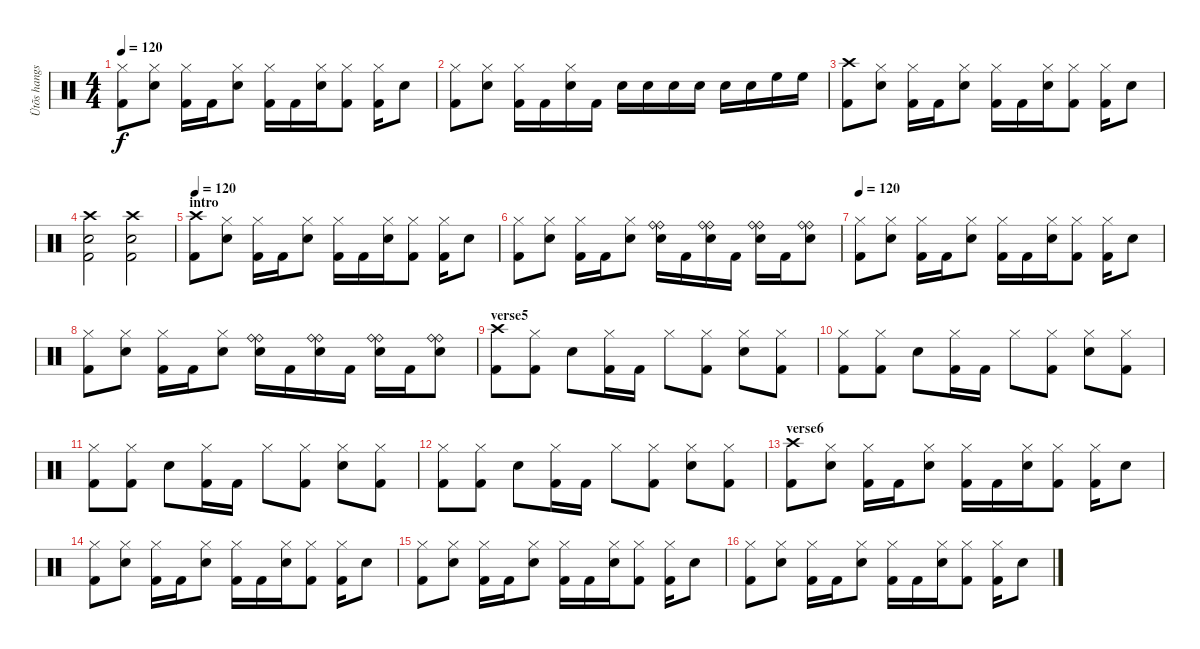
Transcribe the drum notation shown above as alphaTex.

\track ("Ütõs hangszer" "Ütõs hangs") {instrument percussion}
\staff {score}
\articulation defaults
\ts (4 4)
\tempo 120
\clef neutral
\ks c
("Hi-Hat (closed)" "Kick (hit) 2").8{dy f} ("Hi-Hat (closed)" "Snare (hit) 2").8 ("Hi-Hat (closed)" "Kick (hit) 2").16 "Kick (hit) 2".16 ("Hi-Hat (closed)" "Snare (hit) 2").8 ("Hi-Hat (closed)" "Kick (hit) 2").16 "Kick (hit) 2".16 ("Hi-Hat (closed)" "Snare (hit) 2").16 ("Hi-Hat (closed)" "Kick (hit) 2").8 ("Hi-Hat (closed)" "Kick (hit) 2").16 "Snare (hit) 2".8 |
("Hi-Hat (closed)" "Kick (hit) 2").8 ("Hi-Hat (closed)" "Snare (hit) 2").8 ("Hi-Hat (closed)" "Kick (hit) 2").16 "Kick (hit) 2".16 ("Hi-Hat (closed)" "Snare (hit) 2").16 "Kick (hit) 2".16 "Snare (hit) 2".16 "Snare (hit) 2".16 "Snare (hit) 2".16 "Snare (hit) 2".16 "Snare (hit) 2".16 "Snare (hit) 2".16 "High Floor Tom (hit)".16 "High Floor Tom (hit)".16 |
("Crash high (hit)" "Kick (hit) 2").8 ("Hi-Hat (closed)" "Snare (hit) 2").8 ("Hi-Hat (closed)" "Kick (hit) 2").16 "Kick (hit) 2".16 ("Hi-Hat (closed)" "Snare (hit) 2").8 ("Hi-Hat (closed)" "Kick (hit) 2").16 "Kick (hit) 2".16 ("Hi-Hat (closed)" "Snare (hit) 2").16 ("Hi-Hat (closed)" "Kick (hit) 2").8 ("Hi-Hat (closed)" "Kick (hit) 2").16 "Snare (hit) 2".8 |
("Crash high (hit)" "Snare (hit) 2" "Kick (hit) 2").2 ("Crash high (hit)" "Snare (hit) 2" "Kick (hit) 2").2 |
\section ("" "intro")
\tempo 120
("Crash high (hit)" "Kick (hit) 2").8 ("Hi-Hat (closed)" "Snare (hit) 2").8 ("Hi-Hat (closed)" "Kick (hit) 2").16 "Kick (hit) 2".16 ("Hi-Hat (closed)" "Snare (hit) 2").8 ("Hi-Hat (closed)" "Kick (hit) 2").16 "Kick (hit) 2".16 ("Hi-Hat (closed)" "Snare (hit) 2").16 ("Hi-Hat (closed)" "Kick (hit) 2").8 ("Hi-Hat (closed)" "Kick (hit) 2").16 "Snare (hit) 2".8 |
("Hi-Hat (closed)" "Kick (hit) 2").8 ("Hi-Hat (closed)" "Snare (hit) 2").8 ("Hi-Hat (closed)" "Kick (hit) 2").16 "Kick (hit) 2".16 ("Hi-Hat (closed)" "Snare (hit) 2").8 ("Ride (bell)" "Ride (bell)" "Snare (hit) 2").16 "Kick (hit) 2".16 ("Ride (bell)" "Ride (bell)" "Snare (hit) 2").16 "Kick (hit) 2".16 ("Ride (bell)" "Ride (bell)" "Snare (hit) 2").16 "Kick (hit) 2".16 ("Ride (bell)" "Ride (bell)" "Snare (hit) 2").8 |
\tempo 120
("Hi-Hat (closed)" "Kick (hit) 2").8 ("Hi-Hat (closed)" "Snare (hit) 2").8 ("Hi-Hat (closed)" "Kick (hit) 2").16 "Kick (hit) 2".16 ("Hi-Hat (closed)" "Snare (hit) 2").8 ("Hi-Hat (closed)" "Kick (hit) 2").16 "Kick (hit) 2".16 ("Hi-Hat (closed)" "Snare (hit) 2").16 ("Hi-Hat (closed)" "Kick (hit) 2").8 ("Hi-Hat (closed)" "Kick (hit) 2").16 "Snare (hit) 2".8 |
("Hi-Hat (closed)" "Kick (hit) 2").8 ("Hi-Hat (closed)" "Snare (hit) 2").8 ("Hi-Hat (closed)" "Kick (hit) 2").16 "Kick (hit) 2".16 ("Hi-Hat (closed)" "Snare (hit) 2").8 ("Ride (bell)" "Ride (bell)" "Snare (hit) 2").16 "Kick (hit) 2".16 ("Ride (bell)" "Ride (bell)" "Snare (hit) 2").16 "Kick (hit) 2".16 ("Ride (bell)" "Ride (bell)" "Snare (hit) 2").16 "Kick (hit) 2".16 ("Ride (bell)" "Ride (bell)" "Snare (hit) 2").8 |
\section ("" "verse5")
("Crash high (hit)" "Kick (hit) 2").8 ("Hi-Hat (closed)" "Kick (hit) 2").8 "Snare (hit) 2".8 ("Hi-Hat (closed)" "Kick (hit) 2").16 "Kick (hit) 2".16 "Hi-Hat (closed)".8 ("Hi-Hat (closed)" "Kick (hit) 2").8 ("Hi-Hat (closed)" "Snare (hit) 2").8 ("Hi-Hat (closed)" "Kick (hit) 2").8 |
("Hi-Hat (closed)" "Kick (hit) 2").8 ("Hi-Hat (closed)" "Kick (hit) 2").8 "Snare (hit) 2".8 ("Hi-Hat (closed)" "Kick (hit) 2").16 "Kick (hit) 2".16 "Hi-Hat (closed)".8 ("Hi-Hat (closed)" "Kick (hit) 2").8 ("Hi-Hat (closed)" "Snare (hit) 2").8 ("Hi-Hat (closed)" "Kick (hit) 2").8 |
("Hi-Hat (closed)" "Kick (hit) 2").8 ("Hi-Hat (closed)" "Kick (hit) 2").8 "Snare (hit) 2".8 ("Hi-Hat (closed)" "Kick (hit) 2").16 "Kick (hit) 2".16 "Hi-Hat (closed)".8 ("Hi-Hat (closed)" "Kick (hit) 2").8 ("Hi-Hat (closed)" "Snare (hit) 2").8 ("Hi-Hat (closed)" "Kick (hit) 2").8 |
("Hi-Hat (closed)" "Kick (hit) 2").8 ("Hi-Hat (closed)" "Kick (hit) 2").8 "Snare (hit) 2".8 ("Hi-Hat (closed)" "Kick (hit) 2").16 "Kick (hit) 2".16 "Hi-Hat (closed)".8 ("Hi-Hat (closed)" "Kick (hit) 2").8 ("Hi-Hat (closed)" "Snare (hit) 2").8 ("Hi-Hat (closed)" "Kick (hit) 2").8 |
\section ("" "verse6")
("Crash high (hit)" "Kick (hit) 2").8 ("Hi-Hat (closed)" "Snare (hit) 2").8 ("Hi-Hat (closed)" "Kick (hit) 2").16 "Kick (hit) 2".16 ("Hi-Hat (closed)" "Snare (hit) 2").8 ("Hi-Hat (closed)" "Kick (hit) 2").16 "Kick (hit) 2".16 ("Hi-Hat (closed)" "Snare (hit) 2").16 ("Hi-Hat (closed)" "Kick (hit) 2").8 ("Hi-Hat (closed)" "Kick (hit) 2").16 "Snare (hit) 2".8 |
("Hi-Hat (closed)" "Kick (hit) 2").8 ("Hi-Hat (closed)" "Snare (hit) 2").8 ("Hi-Hat (closed)" "Kick (hit) 2").16 "Kick (hit) 2".16 ("Hi-Hat (closed)" "Snare (hit) 2").8 ("Hi-Hat (closed)" "Kick (hit) 2").16 "Kick (hit) 2".16 ("Hi-Hat (closed)" "Snare (hit) 2").16 ("Hi-Hat (closed)" "Kick (hit) 2").8 ("Hi-Hat (closed)" "Kick (hit) 2").16 "Snare (hit) 2".8 |
("Hi-Hat (closed)" "Kick (hit) 2").8 ("Hi-Hat (closed)" "Snare (hit) 2").8 ("Hi-Hat (closed)" "Kick (hit) 2").16 "Kick (hit) 2".16 ("Hi-Hat (closed)" "Snare (hit) 2").8 ("Hi-Hat (closed)" "Kick (hit) 2").16 "Kick (hit) 2".16 ("Hi-Hat (closed)" "Snare (hit) 2").16 ("Hi-Hat (closed)" "Kick (hit) 2").8 ("Hi-Hat (closed)" "Kick (hit) 2").16 "Snare (hit) 2".8 |
("Hi-Hat (closed)" "Kick (hit) 2").8 ("Hi-Hat (closed)" "Snare (hit) 2").8 ("Hi-Hat (closed)" "Kick (hit) 2").16 "Kick (hit) 2".16 ("Hi-Hat (closed)" "Snare (hit) 2").8 ("Hi-Hat (closed)" "Kick (hit) 2").16 "Kick (hit) 2".16 ("Hi-Hat (closed)" "Snare (hit) 2").16 ("Hi-Hat (closed)" "Kick (hit) 2").8 ("Hi-Hat (closed)" "Kick (hit) 2").16 "Snare (hit) 2".8
